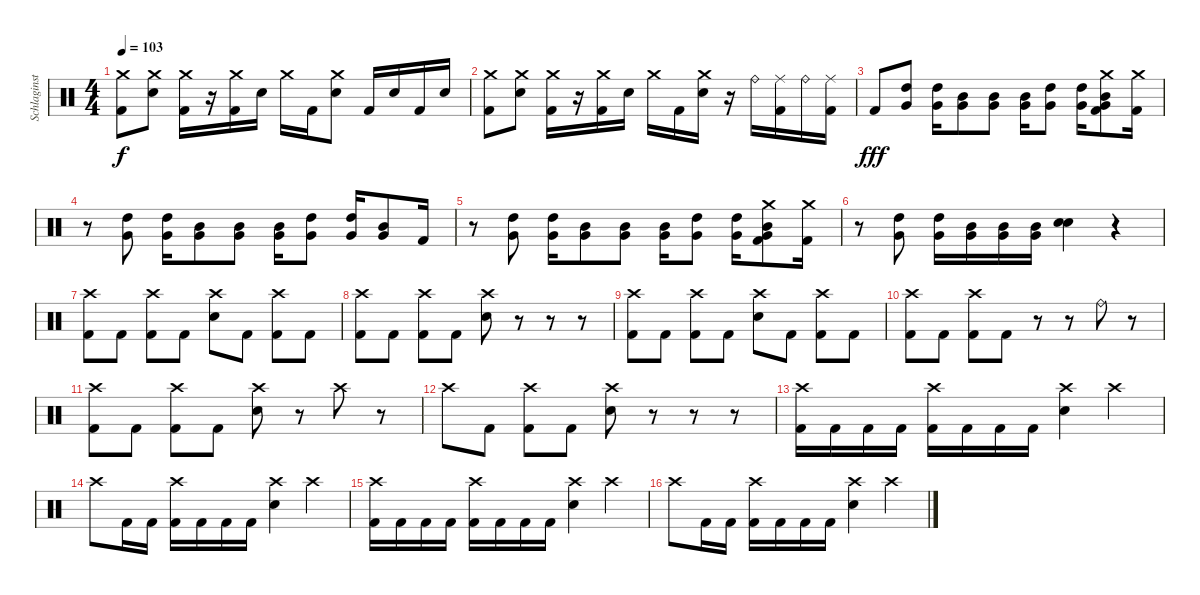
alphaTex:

\track ("Schlaginstrumente - Auswahl" "Schlaginst") {instrument percussion}
\staff {score}
\articulation defaults
\ts (4 4)
\tempo 103
\clef neutral
\ks c
("Crash medium (hit)" "Kick (hit) 2").8{dy f} ("Crash medium (hit)" "Electric Snare (hit)").8 ("Crash medium (hit)" "Kick (hit) 2").16 r.16 ("Crash medium (hit)" "Kick (hit) 2").16 "Electric Snare (hit)".16 "Crash medium (hit)".16 "Kick (hit) 2".16 ("Crash medium (hit)" "Electric Snare (hit)").8 "Kick (hit) 2".16 "Electric Snare (hit)".16 "Kick (hit) 2".16 "Electric Snare (hit)".16 |
("Crash medium (hit)" "Kick (hit) 2").8 ("Crash medium (hit)" "Electric Snare (hit)").8 ("Crash medium (hit)" "Kick (hit) 2").16 r.16 ("Crash medium (hit)" "Kick (hit) 2").16 "Electric Snare (hit)".16 "Crash medium (hit)".16 "Kick (hit) 2".16 ("Crash medium (hit)" "Electric Snare (hit)").16 r.16 "Ride (bell)".16 ("Ride (middle)" "Kick (hit) 2").16 "Ride (bell)".16 ("Ride (middle)" "Kick (hit) 2").16 |
"Kick (hit) 2".8{dy fff} ("High Tom (hit)" "Very Low Tom (hit)").8 ("High Tom (hit)" "Very Low Tom (hit)").16 ("Mid Tom (hit)" "Very Low Tom (hit)").8 ("Mid Tom (hit)" "Very Low Tom (hit)").8 ("Mid Tom (hit)" "Very Low Tom (hit)").16 ("High Tom (hit)" "Very Low Tom (hit)").8 ("High Tom (hit)" "Very Low Tom (hit)").16 ("Crash medium (hit)" "Mid Tom (hit)" "Very Low Tom (hit)" "Kick (hit) 2").8 ("Crash medium (hit)" "Kick (hit) 2").16 |
r.8 ("High Tom (hit)" "Very Low Tom (hit)").8 ("High Tom (hit)" "Very Low Tom (hit)").16 ("Mid Tom (hit)" "Very Low Tom (hit)").8 ("Mid Tom (hit)" "Very Low Tom (hit)").8 ("Mid Tom (hit)" "Very Low Tom (hit)").16 ("High Tom (hit)" "Very Low Tom (hit)").8 ("High Tom (hit)" "Very Low Tom (hit)").16 ("Mid Tom (hit)" "Very Low Tom (hit)").8 "Kick (hit) 2".16 |
r.8 ("High Tom (hit)" "Very Low Tom (hit)").8 ("High Tom (hit)" "Very Low Tom (hit)").16 ("Mid Tom (hit)" "Very Low Tom (hit)").8 ("Mid Tom (hit)" "Very Low Tom (hit)").8 ("Mid Tom (hit)" "Very Low Tom (hit)").16 ("High Tom (hit)" "Very Low Tom (hit)").8 ("High Tom (hit)" "Very Low Tom (hit)").16 ("Crash medium (hit)" "Mid Tom (hit)" "Very Low Tom (hit)" "Kick (hit) 2").8 ("Crash medium (hit)" "Kick (hit) 2").16 |
r.8 ("High Tom (hit)" "Very Low Tom (hit)").8 ("High Tom (hit)" "Very Low Tom (hit)").16 ("Mid Tom (hit)" "Very Low Tom (hit)").16 ("Mid Tom (hit)" "Very Low Tom (hit)").16 ("Mid Tom (hit)" "Very Low Tom (hit)").16 ("Electric Snare (hit)" "Electric Snare (hit)").4 r.4 |
("Crash high (hit)" "Kick (hit) 2").8 "Kick (hit) 2".8 ("Crash high (hit)" "Kick (hit) 2").8 "Kick (hit) 2".8 ("Crash high (hit)" "Electric Snare (hit)").8 "Kick (hit) 2".8 ("Crash high (hit)" "Kick (hit) 2").8 "Kick (hit) 2".8 |
("Crash high (hit)" "Kick (hit) 2").8 "Kick (hit) 2".8 ("Crash high (hit)" "Kick (hit) 2").8 "Kick (hit) 2".8 ("Crash high (hit)" "Electric Snare (hit)").8 r.8 r.8 r.8 |
("Crash high (hit)" "Kick (hit) 2").8 "Kick (hit) 2".8 ("Crash high (hit)" "Kick (hit) 2").8 "Kick (hit) 2".8 ("Crash high (hit)" "Electric Snare (hit)").8 "Kick (hit) 2".8 ("Crash high (hit)" "Kick (hit) 2").8 "Kick (hit) 2".8 |
("Crash high (hit)" "Kick (hit) 2").8 "Kick (hit) 2".8 ("Crash high (hit)" "Kick (hit) 2").8 "Kick (hit) 2".8 r.8 r.8 "Ride (bell)".8 r.8 |
("Crash high (hit)" "Kick (hit) 2").8 "Kick (hit) 2".8 ("Crash high (hit)" "Kick (hit) 2").8 "Kick (hit) 2".8 ("Crash high (hit)" "Electric Snare (hit)").8 r.8 "Crash high (hit)".8 r.8 |
"Crash high (hit)".8 "Kick (hit) 2".8 ("Crash high (hit)" "Kick (hit) 2").8 "Kick (hit) 2".8 ("Crash high (hit)" "Electric Snare (hit)").8 r.8 r.8 r.8 |
("Crash high (hit)" "Kick (hit) 2").16 "Kick (hit) 2".16 "Kick (hit) 2".16 "Kick (hit) 2".16 ("Crash high (hit)" "Kick (hit) 2").16 "Kick (hit) 2".16 "Kick (hit) 2".16 "Kick (hit) 2".16 ("Crash high (hit)" "Electric Snare (hit)").4 "Crash high (hit)".4 |
"Crash high (hit)".8 "Kick (hit) 2".16 "Kick (hit) 2".16 ("Crash high (hit)" "Kick (hit) 2").16 "Kick (hit) 2".16 "Kick (hit) 2".16 "Kick (hit) 2".16 ("Crash high (hit)" "Electric Snare (hit)").4 "Crash high (hit)".4 |
("Crash high (hit)" "Kick (hit) 2").16 "Kick (hit) 2".16 "Kick (hit) 2".16 "Kick (hit) 2".16 ("Crash high (hit)" "Kick (hit) 2").16 "Kick (hit) 2".16 "Kick (hit) 2".16 "Kick (hit) 2".16 ("Crash high (hit)" "Electric Snare (hit)").4 "Crash high (hit)".4 |
"Crash high (hit)".8 "Kick (hit) 2".16 "Kick (hit) 2".16 ("Crash high (hit)" "Kick (hit) 2").16 "Kick (hit) 2".16 "Kick (hit) 2".16 "Kick (hit) 2".16 ("Crash high (hit)" "Electric Snare (hit)").4 "Crash high (hit)".4
